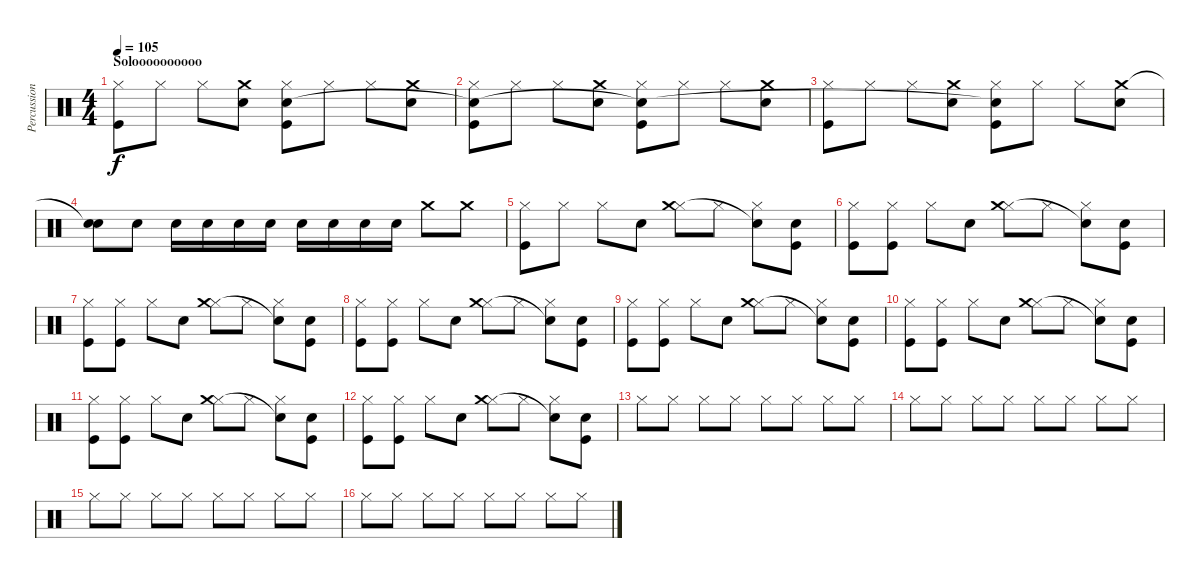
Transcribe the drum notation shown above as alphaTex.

\track ("Percussion" "Percussion") {instrument percussion}
\staff {score}
\articulation defaults
\ts (4 4)
\section ("" "Soloooooooooo")
\tempo 105
\clef neutral
\ks c
("Kick (hit)" "Hi-Hat (closed)").8{dy f} "Hi-Hat (closed)".8 "Hi-Hat (closed)".8 ("Snare (hit) 2" "Crash medium (hit)").8 ("Kick (hit)" "Hi-Hat (closed)" "Snare (hit)"{t}).8 "Hi-Hat (closed)".8 "Hi-Hat (closed)".8 ("Snare (hit) 2" "Crash medium (hit)").8 |
("Kick (hit)" "Hi-Hat (closed)" "Snare (hit)"{t}).8 "Hi-Hat (closed)".8 "Hi-Hat (closed)".8 ("Snare (hit) 2" "Crash medium (hit)").8 ("Kick (hit)" "Hi-Hat (closed)" "Snare (hit)"{t}).8 "Hi-Hat (closed)".8 "Hi-Hat (closed)".8 ("Snare (hit) 2" "Crash medium (hit)").8 |
("Kick (hit)" "Hi-Hat (closed)").8 "Hi-Hat (closed)".8 "Hi-Hat (closed)".8 ("Snare (hit) 2" "Crash medium (hit)").8 ("Kick (hit)" "Hi-Hat (closed)" "Snare (hit)"{t}).8 "Hi-Hat (closed)".8 "Hi-Hat (closed)".8 ("Snare (hit) 2" "Crash medium (hit)").8 |
("Snare (hit) 2" "Snare (hit)"{t}).8 "Snare (hit) 2".8 "Snare (hit) 2".16 "Snare (hit) 2".16 "Snare (hit) 2".16 "Snare (hit) 2".16 "Snare (hit) 2".16 "Snare (hit) 2".16 "Snare (hit) 2".16 "Snare (hit) 2".16 "Crash medium (hit)".8 "Crash medium (hit)".8 |
("Hi-Hat (closed)" "Kick (hit)").8 "Hi-Hat (closed)".8 "Hi-Hat (closed)".8 "Electric Snare (hit)".8 ("Hi-Hat (closed)" "Crash medium (hit)").8 "Hi-Hat (closed)".8 ("Hi-Hat (closed)" "Snare (hit)"{t}).8 ("Electric Snare (hit)" "Kick (hit)").8 |
("Hi-Hat (closed)" "Kick (hit)").8 ("Hi-Hat (closed)" "Kick (hit)").8 "Hi-Hat (closed)".8 "Electric Snare (hit)".8 ("Hi-Hat (closed)" "Crash medium (hit)").8 "Hi-Hat (closed)".8 ("Hi-Hat (closed)" "Snare (hit)"{t}).8 ("Electric Snare (hit)" "Kick (hit)").8 |
("Hi-Hat (closed)" "Kick (hit)").8 ("Hi-Hat (closed)" "Kick (hit)").8 "Hi-Hat (closed)".8 "Electric Snare (hit)".8 ("Hi-Hat (closed)" "Crash medium (hit)").8 "Hi-Hat (closed)".8 ("Hi-Hat (closed)" "Snare (hit)"{t}).8 ("Electric Snare (hit)" "Kick (hit)").8 |
("Hi-Hat (closed)" "Kick (hit)").8 ("Hi-Hat (closed)" "Kick (hit)").8 "Hi-Hat (closed)".8 "Electric Snare (hit)".8 ("Hi-Hat (closed)" "Crash medium (hit)").8 "Hi-Hat (closed)".8 ("Hi-Hat (closed)" "Snare (hit)"{t}).8 ("Electric Snare (hit)" "Kick (hit)").8 |
("Hi-Hat (closed)" "Kick (hit)").8 ("Hi-Hat (closed)" "Kick (hit)").8 "Hi-Hat (closed)".8 "Electric Snare (hit)".8 ("Hi-Hat (closed)" "Crash medium (hit)").8 "Hi-Hat (closed)".8 ("Hi-Hat (closed)" "Snare (hit)"{t}).8 ("Electric Snare (hit)" "Kick (hit)").8 |
("Hi-Hat (closed)" "Kick (hit)").8 ("Hi-Hat (closed)" "Kick (hit)").8 "Hi-Hat (closed)".8 "Electric Snare (hit)".8 ("Hi-Hat (closed)" "Crash medium (hit)").8 "Hi-Hat (closed)".8 ("Hi-Hat (closed)" "Snare (hit)"{t}).8 ("Electric Snare (hit)" "Kick (hit)").8 |
("Hi-Hat (closed)" "Kick (hit)").8 ("Hi-Hat (closed)" "Kick (hit)").8 "Hi-Hat (closed)".8 "Electric Snare (hit)".8 ("Hi-Hat (closed)" "Crash medium (hit)").8 "Hi-Hat (closed)".8 ("Hi-Hat (closed)" "Snare (hit)"{t}).8 ("Electric Snare (hit)" "Kick (hit)").8 |
("Hi-Hat (closed)" "Kick (hit)").8 ("Hi-Hat (closed)" "Kick (hit)").8 "Hi-Hat (closed)".8 "Electric Snare (hit)".8 ("Hi-Hat (closed)" "Crash medium (hit)").8 "Hi-Hat (closed)".8 ("Hi-Hat (closed)" "Snare (hit)"{t}).8 ("Electric Snare (hit)" "Kick (hit)").8 |
"Hi-Hat (closed)".8 "Hi-Hat (closed)".8 "Hi-Hat (closed)".8 "Hi-Hat (closed)".8 "Hi-Hat (closed)".8 "Hi-Hat (closed)".8 "Hi-Hat (closed)".8 "Hi-Hat (closed)".8 |
"Hi-Hat (closed)".8 "Hi-Hat (closed)".8 "Hi-Hat (closed)".8 "Hi-Hat (closed)".8 "Hi-Hat (closed)".8 "Hi-Hat (closed)".8 "Hi-Hat (closed)".8 "Hi-Hat (closed)".8 |
"Hi-Hat (closed)".8 "Hi-Hat (closed)".8 "Hi-Hat (closed)".8 "Hi-Hat (closed)".8 "Hi-Hat (closed)".8 "Hi-Hat (closed)".8 "Hi-Hat (closed)".8 "Hi-Hat (closed)".8 |
"Hi-Hat (closed)".8 "Hi-Hat (closed)".8 "Hi-Hat (closed)".8 "Hi-Hat (closed)".8 "Hi-Hat (closed)".8 "Hi-Hat (closed)".8 "Hi-Hat (closed)".8 "Hi-Hat (closed)".8
